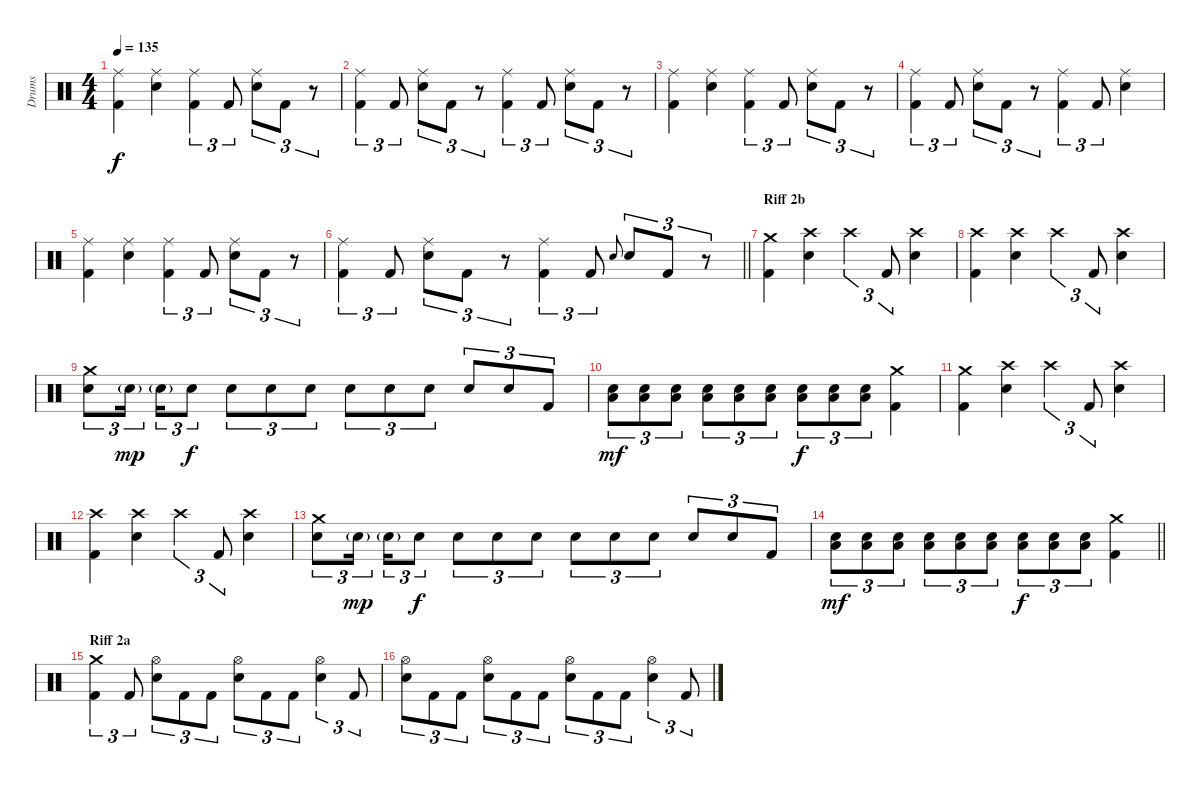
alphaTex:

\track ("Drums" "Drums") {instrument percussion}
\staff {score}
\articulation defaults
\ts (4 4)
\tempo 135
\clef neutral
\ks c
("Ride (middle)" "Kick (hit) 2").4{dy f} ("Ride (middle)" "Electric Snare (hit)").4 ("Kick (hit) 2" "Ride (middle)").4{tu (3 2)} "Kick (hit) 2".8{tu (3 2)} ("Electric Snare (hit)" "Ride (middle)").8{tu (3 2)} "Kick (hit) 2".8{tu (3 2)} r.8{tu (3 2)} |
("Kick (hit) 2" "Ride (middle)").4{tu (3 2)} "Kick (hit) 2".8{tu (3 2)} ("Electric Snare (hit)" "Ride (middle)").8{tu (3 2)} "Kick (hit) 2".8{tu (3 2)} r.8{tu (3 2)} ("Kick (hit) 2" "Ride (middle)").4{tu (3 2)} "Kick (hit) 2".8{tu (3 2)} ("Electric Snare (hit)" "Ride (middle)").8{tu (3 2)} "Kick (hit) 2".8{tu (3 2)} r.8{tu (3 2)} |
("Ride (middle)" "Kick (hit) 2").4 ("Ride (middle)" "Electric Snare (hit)").4 ("Kick (hit) 2" "Ride (middle)").4{tu (3 2)} "Kick (hit) 2".8{tu (3 2)} ("Electric Snare (hit)" "Ride (middle)").8{tu (3 2)} "Kick (hit) 2".8{tu (3 2)} r.8{tu (3 2)} |
("Kick (hit) 2" "Ride (middle)").4{tu (3 2)} "Kick (hit) 2".8{tu (3 2)} ("Electric Snare (hit)" "Ride (middle)").8{tu (3 2)} "Kick (hit) 2".8{tu (3 2)} r.8{tu (3 2)} ("Kick (hit) 2" "Ride (middle)").4{tu (3 2)} "Kick (hit) 2".8{tu (3 2)} ("Electric Snare (hit)" "Ride (middle)").4 |
("Ride (middle)" "Kick (hit) 2").4 ("Ride (middle)" "Electric Snare (hit)").4 ("Kick (hit) 2" "Ride (middle)").4{tu (3 2)} "Kick (hit) 2".8{tu (3 2)} ("Electric Snare (hit)" "Ride (middle)").8{tu (3 2)} "Kick (hit) 2".8{tu (3 2)} r.8{tu (3 2)} |
\barLineRight lightlight
("Kick (hit) 2" "Ride (middle)").4{tu (3 2)} "Kick (hit) 2".8{tu (3 2)} ("Electric Snare (hit)" "Ride (middle)").8{tu (3 2)} "Kick (hit) 2".8{tu (3 2)} r.8{tu (3 2)} ("Kick (hit) 2" "Ride (middle)").4{tu (3 2)} "Kick (hit) 2".8{tu (3 2)} "Electric Snare (hit)".8{gr onbeat} "Electric Snare (hit)".8{tu (3 2)} "Kick (hit) 2".8{tu (3 2)} r.8{tu (3 2)} |
\section ("" "Riff 2b")
("Crash medium (hit)" "Kick (hit) 2").4 ("Electric Snare (hit)" "Crash high (hit)").4 "Crash high (hit)".4{tu (3 2)} "Kick (hit) 2".8{tu (3 2)} ("Crash high (hit)" "Electric Snare (hit)").4 |
("Crash high (hit)" "Kick (hit) 2").4 ("Electric Snare (hit)" "Crash high (hit)").4 "Crash high (hit)".4{tu (3 2)} "Kick (hit) 2".8{tu (3 2)} ("Crash high (hit)" "Electric Snare (hit)").4 |
("Crash medium (hit)" "Electric Snare (hit)").8{tu (3 2)} "Electric Snare (hit)"{g}.16{tu (3 2) dy mp beam splitsecondary} "Electric Snare (hit)"{g}.16{tu (3 2)} "Electric Snare (hit)".8{tu (3 2) dy f} "Electric Snare (hit)".8{tu (3 2)} "Electric Snare (hit)".8{tu (3 2)} "Electric Snare (hit)".8{tu (3 2)} "Electric Snare (hit)".8{tu (3 2)} "Electric Snare (hit)".8{tu (3 2)} "Electric Snare (hit)".8{tu (3 2)} "Electric Snare (hit)".8{tu (3 2)} "Electric Snare (hit)".8{tu (3 2)} "Kick (hit) 2".8{tu (3 2)} |
("Electric Snare (hit)" "Low Floor Tom (hit)").8{tu (3 2) dy mf} ("Electric Snare (hit)" "Low Floor Tom (hit)").8{tu (3 2)} ("Electric Snare (hit)" "Low Floor Tom (hit)").8{tu (3 2)} ("Electric Snare (hit)" "Low Floor Tom (hit)").8{tu (3 2)} ("Electric Snare (hit)" "Low Floor Tom (hit)").8{tu (3 2)} ("Electric Snare (hit)" "Low Floor Tom (hit)").8{tu (3 2)} ("Electric Snare (hit)" "Low Floor Tom (hit)").8{tu (3 2) dy f} ("Electric Snare (hit)" "Low Floor Tom (hit)").8{tu (3 2)} ("Electric Snare (hit)" "Low Floor Tom (hit)").8{tu (3 2)} ("Crash medium (hit)" "Kick (hit) 2").4 |
("Crash medium (hit)" "Kick (hit) 2").4 ("Electric Snare (hit)" "Crash high (hit)").4 "Crash high (hit)".4{tu (3 2)} "Kick (hit) 2".8{tu (3 2)} ("Crash high (hit)" "Electric Snare (hit)").4 |
("Crash high (hit)" "Kick (hit) 2").4 ("Electric Snare (hit)" "Crash high (hit)").4 "Crash high (hit)".4{tu (3 2)} "Kick (hit) 2".8{tu (3 2)} ("Crash high (hit)" "Electric Snare (hit)").4 |
("Crash medium (hit)" "Electric Snare (hit)").8{tu (3 2)} "Electric Snare (hit)"{g}.16{tu (3 2) dy mp beam splitsecondary} "Electric Snare (hit)"{g}.16{tu (3 2)} "Electric Snare (hit)".8{tu (3 2) dy f} "Electric Snare (hit)".8{tu (3 2)} "Electric Snare (hit)".8{tu (3 2)} "Electric Snare (hit)".8{tu (3 2)} "Electric Snare (hit)".8{tu (3 2)} "Electric Snare (hit)".8{tu (3 2)} "Electric Snare (hit)".8{tu (3 2)} "Electric Snare (hit)".8{tu (3 2)} "Electric Snare (hit)".8{tu (3 2)} "Kick (hit) 2".8{tu (3 2)} |
\barLineRight lightlight
("Electric Snare (hit)" "Low Floor Tom (hit)").8{tu (3 2) dy mf} ("Electric Snare (hit)" "Low Floor Tom (hit)").8{tu (3 2)} ("Electric Snare (hit)" "Low Floor Tom (hit)").8{tu (3 2)} ("Electric Snare (hit)" "Low Floor Tom (hit)").8{tu (3 2)} ("Electric Snare (hit)" "Low Floor Tom (hit)").8{tu (3 2)} ("Electric Snare (hit)" "Low Floor Tom (hit)").8{tu (3 2)} ("Electric Snare (hit)" "Low Floor Tom (hit)").8{tu (3 2) dy f} ("Electric Snare (hit)" "Low Floor Tom (hit)").8{tu (3 2)} ("Electric Snare (hit)" "Low Floor Tom (hit)").8{tu (3 2)} ("Crash medium (hit)" "Kick (hit) 2").4 |
\section ("" "Riff 2a")
("Crash medium (hit)" "Kick (hit) 2").4{tu (3 2)} "Kick (hit) 2".8{tu (3 2)} ("Hi-Hat (open)" "Electric Snare (hit)").8{tu (3 2)} "Kick (hit) 2".8{tu (3 2)} "Kick (hit) 2".8{tu (3 2)} ("Hi-Hat (open)" "Electric Snare (hit)").8{tu (3 2)} "Kick (hit) 2".8{tu (3 2)} "Kick (hit) 2".8{tu (3 2)} ("Electric Snare (hit)" "Hi-Hat (open)").4{tu (3 2)} "Kick (hit) 2".8{tu (3 2)} |
("Hi-Hat (open)" "Electric Snare (hit)").8{tu (3 2)} "Kick (hit) 2".8{tu (3 2)} "Kick (hit) 2".8{tu (3 2)} ("Hi-Hat (open)" "Electric Snare (hit)").8{tu (3 2)} "Kick (hit) 2".8{tu (3 2)} "Kick (hit) 2".8{tu (3 2)} ("Hi-Hat (open)" "Electric Snare (hit)").8{tu (3 2)} "Kick (hit) 2".8{tu (3 2)} "Kick (hit) 2".8{tu (3 2)} ("Electric Snare (hit)" "Hi-Hat (open)").4{tu (3 2)} "Kick (hit) 2".8{tu (3 2)}
